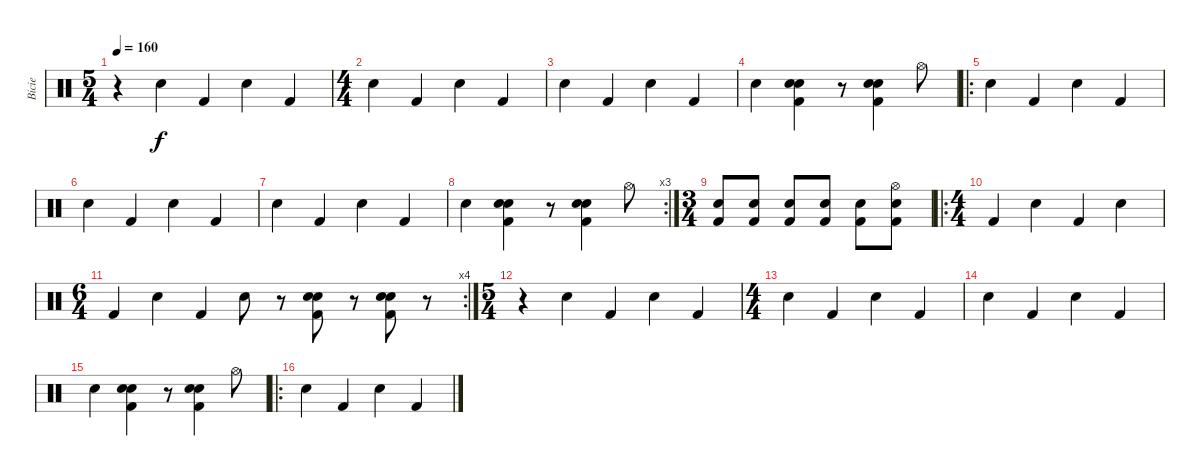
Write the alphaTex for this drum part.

\track ("Bicie" "Bicie") {instrument percussion}
\staff {score}
\articulation defaults
\ts (5 4)
\tempo 160
\clef neutral
\ks c
r.4{dy f} "Snare (hit) 2".4 "Kick (hit) 2".4 "Snare (hit) 2".4 "Kick (hit) 2".4 |
\ts (4 4)
"Snare (hit) 2".4 "Kick (hit) 2".4 "Snare (hit) 2".4 "Kick (hit) 2".4 |
"Snare (hit) 2".4 "Kick (hit) 2".4 "Snare (hit) 2".4 "Kick (hit) 2".4 |
"Snare (hit) 2".4 ("Electric Snare (hit)" "Snare (hit) 2" "Kick (hit) 2").4 r.8 ("Electric Snare (hit)" "Snare (hit) 2" "Kick (hit) 2").4 "Hi-Hat (open)".8 |
\ro "Snare (hit) 2".4 "Kick (hit) 2".4 "Snare (hit) 2".4 "Kick (hit) 2".4
|
"Snare (hit) 2".4 "Kick (hit) 2".4 "Snare (hit) 2".4 "Kick (hit) 2".4 |
"Snare (hit) 2".4 "Kick (hit) 2".4 "Snare (hit) 2".4 "Kick (hit) 2".4 |
\rc 3 "Snare (hit) 2".4
("Electric Snare (hit)" "Snare (hit) 2" "Kick (hit) 2").4 r.8 ("Electric Snare (hit)" "Snare (hit) 2" "Kick (hit) 2").4 "Hi-Hat (open)".8 |
\ts (3 4)
("Kick (hit) 2" "Snare (hit) 2").8 ("Kick (hit) 2" "Snare (hit) 2").8 ("Kick (hit) 2" "Snare (hit) 2").8 ("Kick (hit) 2" "Snare (hit) 2").8 ("Kick (hit) 2" "Snare (hit) 2").8 ("Hi-Hat (open)" "Kick (hit) 2" "Snare (hit) 2").8 |
\ro
\ts (4 4)
"Kick (hit) 2".4 "Snare (hit) 2".4 "Kick (hit) 2".4 "Snare (hit) 2".4 |
\rc 4
\ts (6 4)
"Kick (hit) 2".4 "Snare (hit) 2".4 "Kick (hit) 2".4 "Snare (hit) 2".8 r.8 ("Electric Snare (hit)" "Snare (hit) 2" "Kick (hit) 2").8 r.8 ("Electric Snare (hit)" "Snare (hit) 2" "Kick (hit) 2").8 r.8 |
\ts (5 4)
r.4 "Snare (hit) 2".4 "Kick (hit) 2".4 "Snare (hit) 2".4 "Kick (hit) 2".4 |
\ts (4 4)
"Snare (hit) 2".4 "Kick (hit) 2".4 "Snare (hit) 2".4 "Kick (hit) 2".4 |
"Snare (hit) 2".4 "Kick (hit) 2".4 "Snare (hit) 2".4 "Kick (hit) 2".4 |
"Snare (hit) 2".4 ("Electric Snare (hit)" "Snare (hit) 2" "Kick (hit) 2").4 r.8 ("Electric Snare (hit)" "Snare (hit) 2" "Kick (hit) 2").4 "Hi-Hat (open)".8 |
\ro "Snare (hit) 2".4 "Kick (hit) 2".4 "Snare (hit) 2".4 "Kick (hit) 2".4
